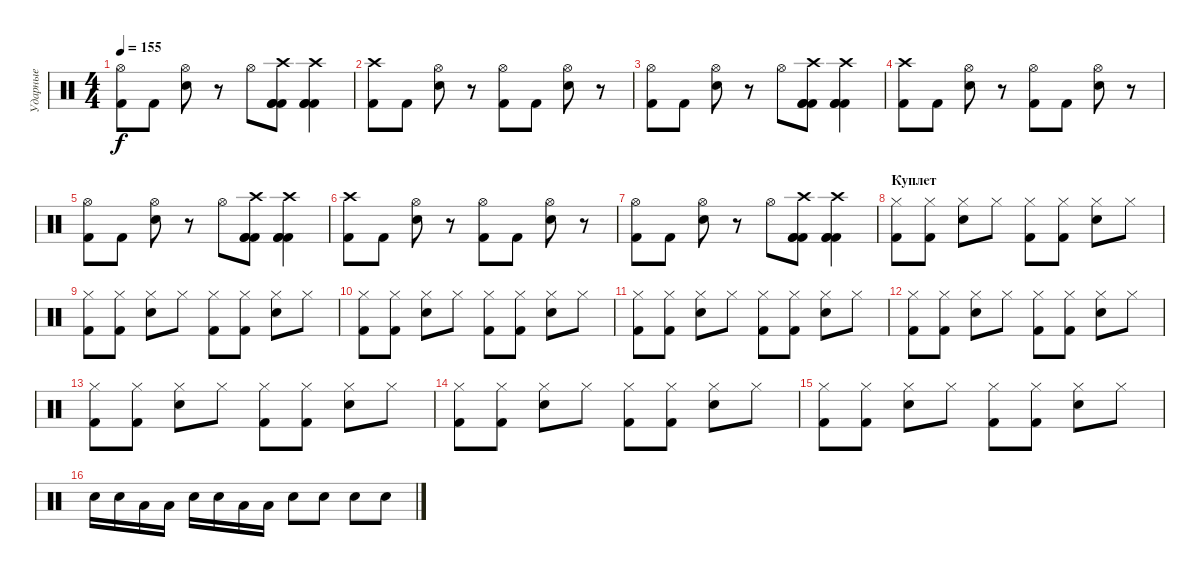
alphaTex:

\track ("Ударные" "Ударные") {instrument percussion}
\staff {score}
\articulation defaults
\ts (4 4)
\tempo 155
\clef neutral
\ks c
("Hi-Hat (open)" "Kick (hit) 2").8{dy f} "Kick (hit) 2".8 ("Hi-Hat (open)" "Snare (hit) 2").8 r.8 "Hi-Hat (open)".8 ("Crash high (hit)" "Kick (hit) 2" "Kick (hit) 2" "Kick (hit) 2").8 ("Crash high (hit)" "Kick (hit) 2" "Kick (hit) 2" "Kick (hit) 2").4 |
("Crash high (hit)" "Kick (hit) 2").8 "Kick (hit) 2".8 ("Hi-Hat (open)" "Snare (hit) 2").8 r.8 ("Hi-Hat (open)" "Kick (hit) 2").8 "Kick (hit) 2".8 ("Hi-Hat (open)" "Snare (hit) 2").8 r.8 |
("Hi-Hat (open)" "Kick (hit) 2").8 "Kick (hit) 2".8 ("Hi-Hat (open)" "Snare (hit) 2").8 r.8 "Hi-Hat (open)".8 ("Crash high (hit)" "Kick (hit) 2" "Kick (hit) 2" "Kick (hit) 2").8 ("Crash high (hit)" "Kick (hit) 2" "Kick (hit) 2" "Kick (hit) 2").4 |
("Crash high (hit)" "Kick (hit) 2").8 "Kick (hit) 2".8 ("Hi-Hat (open)" "Snare (hit) 2").8 r.8 ("Hi-Hat (open)" "Kick (hit) 2").8 "Kick (hit) 2".8 ("Hi-Hat (open)" "Snare (hit) 2").8 r.8 |
("Hi-Hat (open)" "Kick (hit) 2").8 "Kick (hit) 2".8 ("Hi-Hat (open)" "Snare (hit) 2").8 r.8 "Hi-Hat (open)".8 ("Crash high (hit)" "Kick (hit) 2" "Kick (hit) 2" "Kick (hit) 2").8 ("Crash high (hit)" "Kick (hit) 2" "Kick (hit) 2" "Kick (hit) 2").4 |
("Crash high (hit)" "Kick (hit) 2").8 "Kick (hit) 2".8 ("Hi-Hat (open)" "Snare (hit) 2").8 r.8 ("Hi-Hat (open)" "Kick (hit) 2").8 "Kick (hit) 2".8 ("Hi-Hat (open)" "Snare (hit) 2").8 r.8 |
("Hi-Hat (open)" "Kick (hit) 2").8 "Kick (hit) 2".8 ("Hi-Hat (open)" "Snare (hit) 2").8 r.8 "Hi-Hat (open)".8 ("Crash high (hit)" "Kick (hit) 2" "Kick (hit) 2" "Kick (hit) 2").8 ("Crash high (hit)" "Kick (hit) 2" "Kick (hit) 2" "Kick (hit) 2").4 |
\section ("" "Куплет")
("Hi-Hat (closed)" "Kick (hit) 2").8 ("Hi-Hat (closed)" "Kick (hit) 2").8 ("Hi-Hat (closed)" "Snare (hit) 2").8 "Hi-Hat (closed)".8 ("Hi-Hat (closed)" "Kick (hit) 2").8 ("Hi-Hat (closed)" "Kick (hit) 2").8 ("Hi-Hat (closed)" "Snare (hit) 2").8 "Hi-Hat (closed)".8 |
("Hi-Hat (closed)" "Kick (hit) 2").8 ("Hi-Hat (closed)" "Kick (hit) 2").8 ("Hi-Hat (closed)" "Snare (hit) 2").8 "Hi-Hat (closed)".8 ("Hi-Hat (closed)" "Kick (hit) 2").8 ("Hi-Hat (closed)" "Kick (hit) 2").8 ("Hi-Hat (closed)" "Snare (hit) 2").8 "Hi-Hat (closed)".8 |
("Hi-Hat (closed)" "Kick (hit) 2").8 ("Hi-Hat (closed)" "Kick (hit) 2").8 ("Hi-Hat (closed)" "Snare (hit) 2").8 "Hi-Hat (closed)".8 ("Hi-Hat (closed)" "Kick (hit) 2").8 ("Hi-Hat (closed)" "Kick (hit) 2").8 ("Hi-Hat (closed)" "Snare (hit) 2").8 "Hi-Hat (closed)".8 |
("Hi-Hat (closed)" "Kick (hit) 2").8 ("Hi-Hat (closed)" "Kick (hit) 2").8 ("Hi-Hat (closed)" "Snare (hit) 2").8 "Hi-Hat (closed)".8 ("Hi-Hat (closed)" "Kick (hit) 2").8 ("Hi-Hat (closed)" "Kick (hit) 2").8 ("Hi-Hat (closed)" "Snare (hit) 2").8 "Hi-Hat (closed)".8 |
("Hi-Hat (closed)" "Kick (hit) 2").8 ("Hi-Hat (closed)" "Kick (hit) 2").8 ("Hi-Hat (closed)" "Snare (hit) 2").8 "Hi-Hat (closed)".8 ("Hi-Hat (closed)" "Kick (hit) 2").8 ("Hi-Hat (closed)" "Kick (hit) 2").8 ("Hi-Hat (closed)" "Snare (hit) 2").8 "Hi-Hat (closed)".8 |
("Hi-Hat (closed)" "Kick (hit) 2").8 ("Hi-Hat (closed)" "Kick (hit) 2").8 ("Hi-Hat (closed)" "Snare (hit) 2").8 "Hi-Hat (closed)".8 ("Hi-Hat (closed)" "Kick (hit) 2").8 ("Hi-Hat (closed)" "Kick (hit) 2").8 ("Hi-Hat (closed)" "Snare (hit) 2").8 "Hi-Hat (closed)".8 |
("Hi-Hat (closed)" "Kick (hit) 2").8 ("Hi-Hat (closed)" "Kick (hit) 2").8 ("Hi-Hat (closed)" "Snare (hit) 2").8 "Hi-Hat (closed)".8 ("Hi-Hat (closed)" "Kick (hit) 2").8 ("Hi-Hat (closed)" "Kick (hit) 2").8 ("Hi-Hat (closed)" "Snare (hit) 2").8 "Hi-Hat (closed)".8 |
("Hi-Hat (closed)" "Kick (hit) 2").8 ("Hi-Hat (closed)" "Kick (hit) 2").8 ("Hi-Hat (closed)" "Snare (hit) 2").8 "Hi-Hat (closed)".8 ("Hi-Hat (closed)" "Kick (hit) 2").8 ("Hi-Hat (closed)" "Kick (hit) 2").8 ("Hi-Hat (closed)" "Snare (hit) 2").8 "Hi-Hat (closed)".8 |
"Snare (hit) 2".16 "Snare (hit) 2".16 "Low Tom (hit)".16 "Low Tom (hit)".16 "Snare (hit) 2".16 "Snare (hit) 2".16 "Low Tom (hit)".16 "Low Tom (hit)".16 "Snare (hit) 2".8 "Snare (hit) 2".8 "Snare (hit) 2".8 "Snare (hit) 2".8
